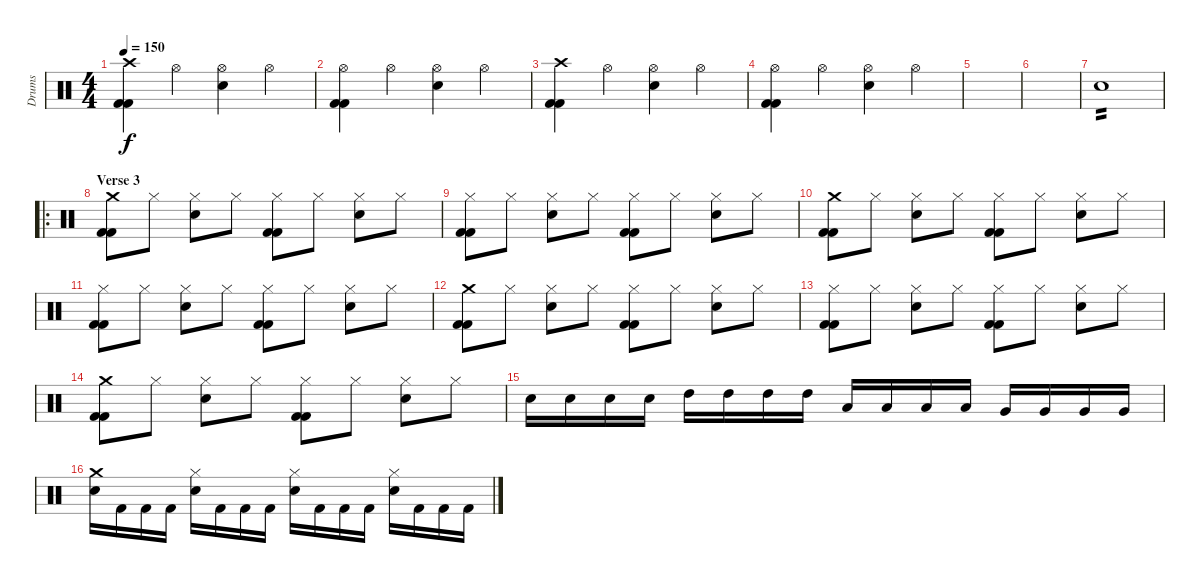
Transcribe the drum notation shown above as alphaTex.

\track ("Drums" "Drums") {instrument percussion}
\staff {score}
\articulation defaults
\ts (4 4)
\tempo 150
\clef neutral
\ks c
("Crash high (hit)" "Kick (hit) 2" "Kick (hit) 2").4{dy f} "Hi-Hat (open)".4 ("Electric Snare (hit)" "Hi-Hat (open)").4 "Hi-Hat (open)".4 |
("Hi-Hat (open)" "Kick (hit) 2" "Kick (hit) 2").4 "Hi-Hat (open)".4 ("Electric Snare (hit)" "Hi-Hat (open)").4 "Hi-Hat (open)".4 |
("Crash high (hit)" "Kick (hit) 2" "Kick (hit) 2").4 "Hi-Hat (open)".4 ("Electric Snare (hit)" "Hi-Hat (open)").4 "Hi-Hat (open)".4 |
("Hi-Hat (open)" "Kick (hit) 2" "Kick (hit) 2").4 "Hi-Hat (open)".4 ("Electric Snare (hit)" "Hi-Hat (open)").4 "Hi-Hat (open)".4 |
|
|
"Electric Snare (hit)".1{tp 2} |
\ro
\section ("" "Verse 3")
("Crash medium (hit)" "Kick (hit) 2" "Kick (hit) 2").8 "Hi-Hat (closed)".8 ("Electric Snare (hit)" "Hi-Hat (closed)").8 "Hi-Hat (closed)".8 ("Hi-Hat (closed)" "Kick (hit) 2" "Kick (hit) 2").8 "Hi-Hat (closed)".8 ("Electric Snare (hit)" "Hi-Hat (closed)").8 "Hi-Hat (closed)".8 |
("Hi-Hat (closed)" "Kick (hit) 2" "Kick (hit) 2").8 "Hi-Hat (closed)".8 ("Electric Snare (hit)" "Hi-Hat (closed)").8 "Hi-Hat (closed)".8 ("Hi-Hat (closed)" "Kick (hit) 2" "Kick (hit) 2").8 "Hi-Hat (closed)".8 ("Electric Snare (hit)" "Hi-Hat (closed)").8 "Hi-Hat (closed)".8 |
("Crash medium (hit)" "Kick (hit) 2" "Kick (hit) 2").8 "Hi-Hat (closed)".8 ("Electric Snare (hit)" "Hi-Hat (closed)").8 "Hi-Hat (closed)".8 ("Hi-Hat (closed)" "Kick (hit) 2" "Kick (hit) 2").8 "Hi-Hat (closed)".8 ("Electric Snare (hit)" "Hi-Hat (closed)").8 "Hi-Hat (closed)".8 |
("Hi-Hat (closed)" "Kick (hit) 2" "Kick (hit) 2").8 "Hi-Hat (closed)".8 ("Electric Snare (hit)" "Hi-Hat (closed)").8 "Hi-Hat (closed)".8 ("Hi-Hat (closed)" "Kick (hit) 2" "Kick (hit) 2").8 "Hi-Hat (closed)".8 ("Electric Snare (hit)" "Hi-Hat (closed)").8 "Hi-Hat (closed)".8 |
("Crash medium (hit)" "Kick (hit) 2" "Kick (hit) 2").8 "Hi-Hat (closed)".8 ("Electric Snare (hit)" "Hi-Hat (closed)").8 "Hi-Hat (closed)".8 ("Hi-Hat (closed)" "Kick (hit) 2" "Kick (hit) 2").8 "Hi-Hat (closed)".8 ("Electric Snare (hit)" "Hi-Hat (closed)").8 "Hi-Hat (closed)".8 |
("Hi-Hat (closed)" "Kick (hit) 2" "Kick (hit) 2").8 "Hi-Hat (closed)".8 ("Electric Snare (hit)" "Hi-Hat (closed)").8 "Hi-Hat (closed)".8 ("Hi-Hat (closed)" "Kick (hit) 2" "Kick (hit) 2").8 "Hi-Hat (closed)".8 ("Electric Snare (hit)" "Hi-Hat (closed)").8 "Hi-Hat (closed)".8 |
("Crash medium (hit)" "Kick (hit) 2" "Kick (hit) 2").8 "Hi-Hat (closed)".8 ("Electric Snare (hit)" "Hi-Hat (closed)").8 "Hi-Hat (closed)".8 ("Hi-Hat (closed)" "Kick (hit) 2" "Kick (hit) 2").8 "Hi-Hat (closed)".8 ("Electric Snare (hit)" "Hi-Hat (closed)").8 "Hi-Hat (closed)".8 |
"Electric Snare (hit)".16 "Electric Snare (hit)".16 "Electric Snare (hit)".16 "Electric Snare (hit)".16 "High Tom (hit)".16 "High Tom (hit)".16 "High Tom (hit)".16 "High Tom (hit)".16 "Low Tom (hit)".16 "Low Tom (hit)".16 "Low Tom (hit)".16 "Low Tom (hit)".16 "Very Low Tom (hit)".16 "Very Low Tom (hit)".16 "Very Low Tom (hit)".16 "Very Low Tom (hit)".16 |
("Crash medium (hit)" "Electric Snare (hit)").16 "Kick (hit) 2".16 "Kick (hit) 2".16 "Kick (hit) 2".16 ("Electric Snare (hit)" "Hi-Hat (closed)").16 "Kick (hit) 2".16 "Kick (hit) 2".16 "Kick (hit) 2".16 ("Hi-Hat (closed)" "Electric Snare (hit)").16 "Kick (hit) 2".16 "Kick (hit) 2".16 "Kick (hit) 2".16 ("Electric Snare (hit)" "Hi-Hat (closed)").16 "Kick (hit) 2".16 "Kick (hit) 2".16 "Kick (hit) 2".16
